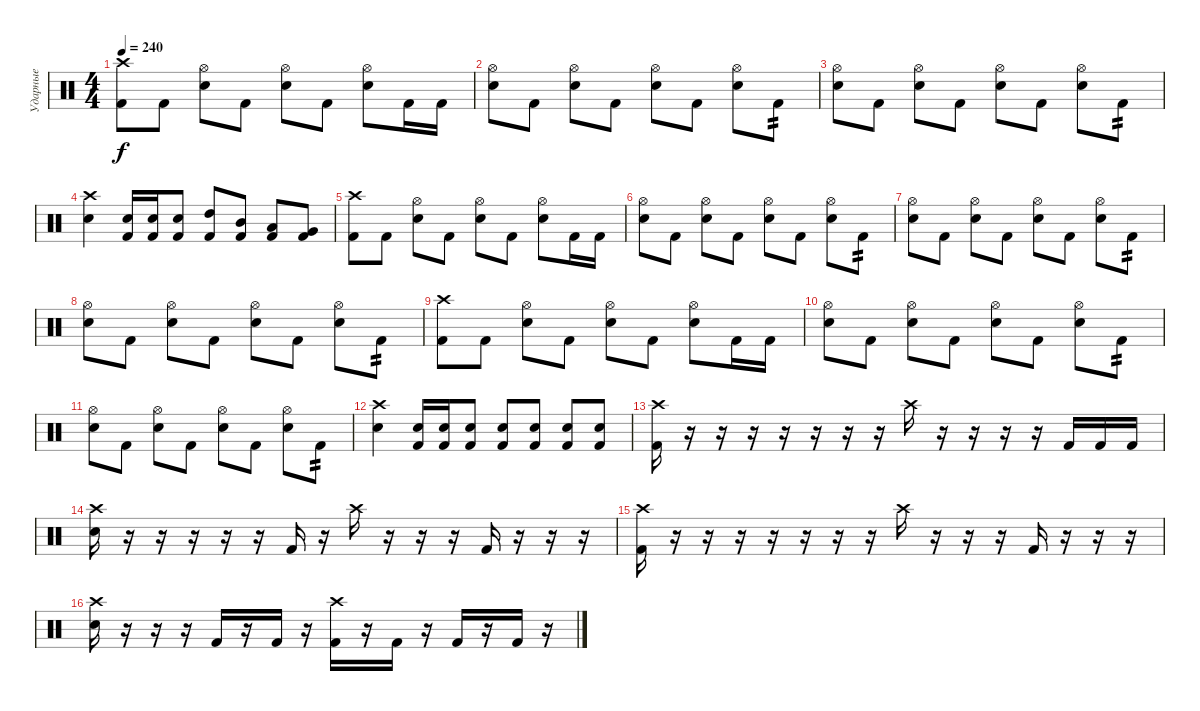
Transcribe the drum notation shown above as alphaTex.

\track ("Ударные" "Ударные") {instrument percussion}
\staff {score}
\articulation defaults
\ts (4 4)
\tempo 240
\clef neutral
\ks c
("Crash high (hit)" "Kick (hit) 2").8{dy f} "Kick (hit) 2".8 ("Hi-Hat (open)" "Electric Snare (hit)").8 "Kick (hit) 2".8 ("Hi-Hat (open)" "Electric Snare (hit)").8 "Kick (hit) 2".8 ("Hi-Hat (open)" "Electric Snare (hit)").8 "Kick (hit) 2".16 "Kick (hit) 2".16 |
("Hi-Hat (open)" "Electric Snare (hit)").8 "Kick (hit) 2".8 ("Hi-Hat (open)" "Electric Snare (hit)").8 "Kick (hit) 2".8 ("Hi-Hat (open)" "Electric Snare (hit)").8 "Kick (hit) 2".8 ("Hi-Hat (open)" "Electric Snare (hit)").8 "Kick (hit) 2".8{tp 2} |
("Hi-Hat (open)" "Electric Snare (hit)").8 "Kick (hit) 2".8 ("Hi-Hat (open)" "Electric Snare (hit)").8 "Kick (hit) 2".8 ("Hi-Hat (open)" "Electric Snare (hit)").8 "Kick (hit) 2".8 ("Hi-Hat (open)" "Electric Snare (hit)").8 "Kick (hit) 2".8{tp 2} |
("Crash high (hit)" "Electric Snare (hit)").4 ("Electric Snare (hit)" "Kick (hit) 2").16 ("Electric Snare (hit)" "Kick (hit) 2").16 ("Electric Snare (hit)" "Kick (hit) 2").8 ("High Tom (hit)" "Kick (hit) 2").8 ("Mid Tom (hit)" "Kick (hit) 2").8 ("Low Tom (hit)" "Kick (hit) 2").8 ("Very Low Tom (hit)" "Kick (hit) 2").8 |
("Crash high (hit)" "Kick (hit) 2").8 "Kick (hit) 2".8 ("Hi-Hat (open)" "Electric Snare (hit)").8 "Kick (hit) 2".8 ("Hi-Hat (open)" "Electric Snare (hit)").8 "Kick (hit) 2".8 ("Hi-Hat (open)" "Electric Snare (hit)").8 "Kick (hit) 2".16 "Kick (hit) 2".16 |
("Hi-Hat (open)" "Electric Snare (hit)").8 "Kick (hit) 2".8 ("Hi-Hat (open)" "Electric Snare (hit)").8 "Kick (hit) 2".8 ("Hi-Hat (open)" "Electric Snare (hit)").8 "Kick (hit) 2".8 ("Hi-Hat (open)" "Electric Snare (hit)").8 "Kick (hit) 2".8{tp 2} |
("Hi-Hat (open)" "Electric Snare (hit)").8 "Kick (hit) 2".8 ("Hi-Hat (open)" "Electric Snare (hit)").8 "Kick (hit) 2".8 ("Hi-Hat (open)" "Electric Snare (hit)").8 "Kick (hit) 2".8 ("Hi-Hat (open)" "Electric Snare (hit)").8 "Kick (hit) 2".8{tp 2} |
("Hi-Hat (open)" "Electric Snare (hit)").8 "Kick (hit) 2".8 ("Hi-Hat (open)" "Electric Snare (hit)").8 "Kick (hit) 2".8 ("Hi-Hat (open)" "Electric Snare (hit)").8 "Kick (hit) 2".8 ("Hi-Hat (open)" "Electric Snare (hit)").8 "Kick (hit) 2".8{tp 2} |
("Crash high (hit)" "Kick (hit) 2").8 "Kick (hit) 2".8 ("Hi-Hat (open)" "Electric Snare (hit)").8 "Kick (hit) 2".8 ("Hi-Hat (open)" "Electric Snare (hit)").8 "Kick (hit) 2".8 ("Hi-Hat (open)" "Electric Snare (hit)").8 "Kick (hit) 2".16 "Kick (hit) 2".16 |
("Hi-Hat (open)" "Electric Snare (hit)").8 "Kick (hit) 2".8 ("Hi-Hat (open)" "Electric Snare (hit)").8 "Kick (hit) 2".8 ("Hi-Hat (open)" "Electric Snare (hit)").8 "Kick (hit) 2".8 ("Hi-Hat (open)" "Electric Snare (hit)").8 "Kick (hit) 2".8{tp 2} |
("Hi-Hat (open)" "Electric Snare (hit)").8 "Kick (hit) 2".8 ("Hi-Hat (open)" "Electric Snare (hit)").8 "Kick (hit) 2".8 ("Hi-Hat (open)" "Electric Snare (hit)").8 "Kick (hit) 2".8 ("Hi-Hat (open)" "Electric Snare (hit)").8 "Kick (hit) 2".8{tp 2} |
("Crash high (hit)" "Electric Snare (hit)").4 ("Electric Snare (hit)" "Kick (hit) 2").16 ("Electric Snare (hit)" "Kick (hit) 2").16 ("Electric Snare (hit)" "Kick (hit) 2").8 ("Electric Snare (hit)" "Kick (hit) 2").8 ("Electric Snare (hit)" "Kick (hit) 2").8 ("Electric Snare (hit)" "Kick (hit) 2").8 ("Electric Snare (hit)" "Kick (hit) 2").8 |
("Crash high (hit)" "Kick (hit) 2").16 r.16 r.16 r.16 r.16 r.16 r.16 r.16 "Crash high (hit)".16 r.16 r.16 r.16 r.16 "Kick (hit) 2".16 "Kick (hit) 2".16 "Kick (hit) 2".16 |
("Crash high (hit)" "Electric Snare (hit)").16 r.16 r.16 r.16 r.16 r.16 "Kick (hit) 2".16 r.16 "Crash high (hit)".16 r.16 r.16 r.16 "Kick (hit) 2".16 r.16 r.16 r.16 |
("Crash high (hit)" "Kick (hit) 2").16 r.16 r.16 r.16 r.16 r.16 r.16 r.16 "Crash high (hit)".16 r.16 r.16 r.16 "Kick (hit) 2".16 r.16 r.16 r.16 |
("Crash high (hit)" "Electric Snare (hit)").16 r.16 r.16 r.16 "Kick (hit) 2".16 r.16 "Kick (hit) 2".16 r.16 ("Crash high (hit)" "Kick (hit) 2").16 r.16 "Kick (hit) 2".16 r.16 "Kick (hit) 2".16 r.16 "Kick (hit) 2".16 r.16
